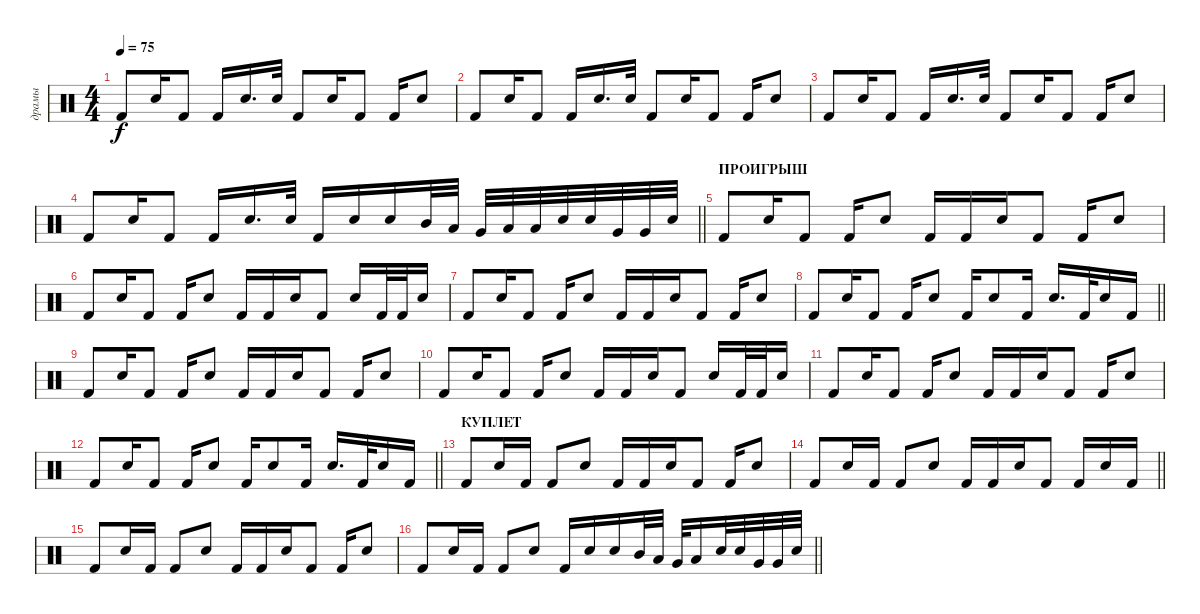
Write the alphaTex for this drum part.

\track ("драмы" "драмы") {instrument percussion}
\staff {score}
\articulation defaults
\ts (4 4)
\tempo 75
\clef neutral
\ks c "Kick (hit) 2".8{dy f} "Electric Snare (hit)".16 "Kick (hit) 2".8 "Kick (hit) 2".16 "Electric Snare (hit)".16{d} "Electric Snare (hit)".32 "Kick (hit) 2".8 "Electric Snare (hit)".16 "Kick (hit) 2".8 "Kick (hit) 2".16 "Electric Snare (hit)".8
|
"Kick (hit) 2".8 "Electric Snare (hit)".16 "Kick (hit) 2".8 "Kick (hit) 2".16 "Electric Snare (hit)".16{d} "Electric Snare (hit)".32 "Kick (hit) 2".8 "Electric Snare (hit)".16 "Kick (hit) 2".8 "Kick (hit) 2".16 "Electric Snare (hit)".8 |
"Kick (hit) 2".8 "Electric Snare (hit)".16 "Kick (hit) 2".8 "Kick (hit) 2".16 "Electric Snare (hit)".16{d} "Electric Snare (hit)".32 "Kick (hit) 2".8 "Electric Snare (hit)".16 "Kick (hit) 2".8 "Kick (hit) 2".16 "Electric Snare (hit)".8 |
\barLineRight lightlight "Kick (hit) 2".8 "Electric Snare (hit)".16 "Kick (hit) 2".8 "Kick (hit) 2".16 "Electric Snare (hit)".16{d} "Electric Snare (hit)".32 "Kick (hit) 2".16 "Electric Snare (hit)".16 "Electric Snare (hit)".16 "Mid Tom (hit)".32 "Low Tom (hit)".32 "Very Low Tom (hit)".32 "Low Floor Tom (hit)".32 "Low Floor Tom (hit)".32 "Electric Snare (hit)".32 "Electric Snare (hit)".32 "Very Low Tom (hit)".32 "Very Low Tom (hit)".32 "Electric Snare (hit)".32
|
\section ("" "ПРОИГРЫШ")
"Kick (hit) 2".8 "Electric Snare (hit)".16 "Kick (hit) 2".8 "Kick (hit) 2".16 "Electric Snare (hit)".8 "Kick (hit) 2".16 "Kick (hit) 2".16 "Electric Snare (hit)".16 "Kick (hit) 2".8 "Kick (hit) 2".16 "Electric Snare (hit)".8 |
"Kick (hit) 2".8 "Electric Snare (hit)".16 "Kick (hit) 2".8 "Kick (hit) 2".16 "Electric Snare (hit)".8 "Kick (hit) 2".16 "Kick (hit) 2".16 "Electric Snare (hit)".16 "Kick (hit) 2".8 "Electric Snare (hit)".16 "Kick (hit) 2".32 "Kick (hit) 2".32 "Electric Snare (hit)".16 |
"Kick (hit) 2".8 "Electric Snare (hit)".16 "Kick (hit) 2".8 "Kick (hit) 2".16 "Electric Snare (hit)".8 "Kick (hit) 2".16 "Kick (hit) 2".16 "Electric Snare (hit)".16 "Kick (hit) 2".8 "Kick (hit) 2".16 "Electric Snare (hit)".8 |
\barLineRight lightlight "Kick (hit) 2".8 "Electric Snare (hit)".16 "Kick (hit) 2".8 "Kick (hit) 2".16 "Electric Snare (hit)".8 "Kick (hit) 2".16 "Electric Snare (hit)".8 "Kick (hit) 2".16 "Electric Snare (hit)".16{d} "Kick (hit) 2".32 "Electric Snare (hit)".16 "Kick (hit) 2".16
|
"Kick (hit) 2".8 "Electric Snare (hit)".16 "Kick (hit) 2".8 "Kick (hit) 2".16 "Electric Snare (hit)".8 "Kick (hit) 2".16 "Kick (hit) 2".16 "Electric Snare (hit)".16 "Kick (hit) 2".8 "Kick (hit) 2".16 "Electric Snare (hit)".8 |
"Kick (hit) 2".8 "Electric Snare (hit)".16 "Kick (hit) 2".8 "Kick (hit) 2".16 "Electric Snare (hit)".8 "Kick (hit) 2".16 "Kick (hit) 2".16 "Electric Snare (hit)".16 "Kick (hit) 2".8 "Electric Snare (hit)".16 "Kick (hit) 2".32 "Kick (hit) 2".32 "Electric Snare (hit)".16 |
"Kick (hit) 2".8 "Electric Snare (hit)".16 "Kick (hit) 2".8 "Kick (hit) 2".16 "Electric Snare (hit)".8 "Kick (hit) 2".16 "Kick (hit) 2".16 "Electric Snare (hit)".16 "Kick (hit) 2".8 "Kick (hit) 2".16 "Electric Snare (hit)".8 |
\barLineRight lightlight "Kick (hit) 2".8 "Electric Snare (hit)".16 "Kick (hit) 2".8 "Kick (hit) 2".16 "Electric Snare (hit)".8 "Kick (hit) 2".16 "Electric Snare (hit)".8 "Kick (hit) 2".16 "Electric Snare (hit)".16{d} "Kick (hit) 2".32 "Electric Snare (hit)".16 "Kick (hit) 2".16
|
\section ("" "КУПЛЕТ")
"Kick (hit) 2".8 "Electric Snare (hit)".16 "Kick (hit) 2".16 "Kick (hit) 2".8 "Electric Snare (hit)".8 "Kick (hit) 2".16 "Kick (hit) 2".16 "Electric Snare (hit)".16 "Kick (hit) 2".8 "Kick (hit) 2".16 "Electric Snare (hit)".8 |
\barLineRight lightlight "Kick (hit) 2".8 "Electric Snare (hit)".16 "Kick (hit) 2".16 "Kick (hit) 2".8 "Electric Snare (hit)".8 "Kick (hit) 2".16 "Kick (hit) 2".16 "Electric Snare (hit)".16 "Kick (hit) 2".8 "Kick (hit) 2".16 "Electric Snare (hit)".16 "Kick (hit) 2".16
|
"Kick (hit) 2".8 "Electric Snare (hit)".16 "Kick (hit) 2".16 "Kick (hit) 2".8 "Electric Snare (hit)".8 "Kick (hit) 2".16 "Kick (hit) 2".16 "Electric Snare (hit)".16 "Kick (hit) 2".8 "Kick (hit) 2".16 "Electric Snare (hit)".8 |
\barLineRight lightlight "Kick (hit) 2".8 "Electric Snare (hit)".16 "Kick (hit) 2".16 "Kick (hit) 2".8 "Electric Snare (hit)".8 "Kick (hit) 2".16 "Electric Snare (hit)".16 "Electric Snare (hit)".16 "Mid Tom (hit)".32 "Low Tom (hit)".32 "Very Low Tom (hit)".32 "Low Floor Tom (hit)".16 "Electric Snare (hit)".32 "Electric Snare (hit)".32 "Very Low Tom (hit)".32 "Very Low Tom (hit)".32 "Electric Snare (hit)".32
